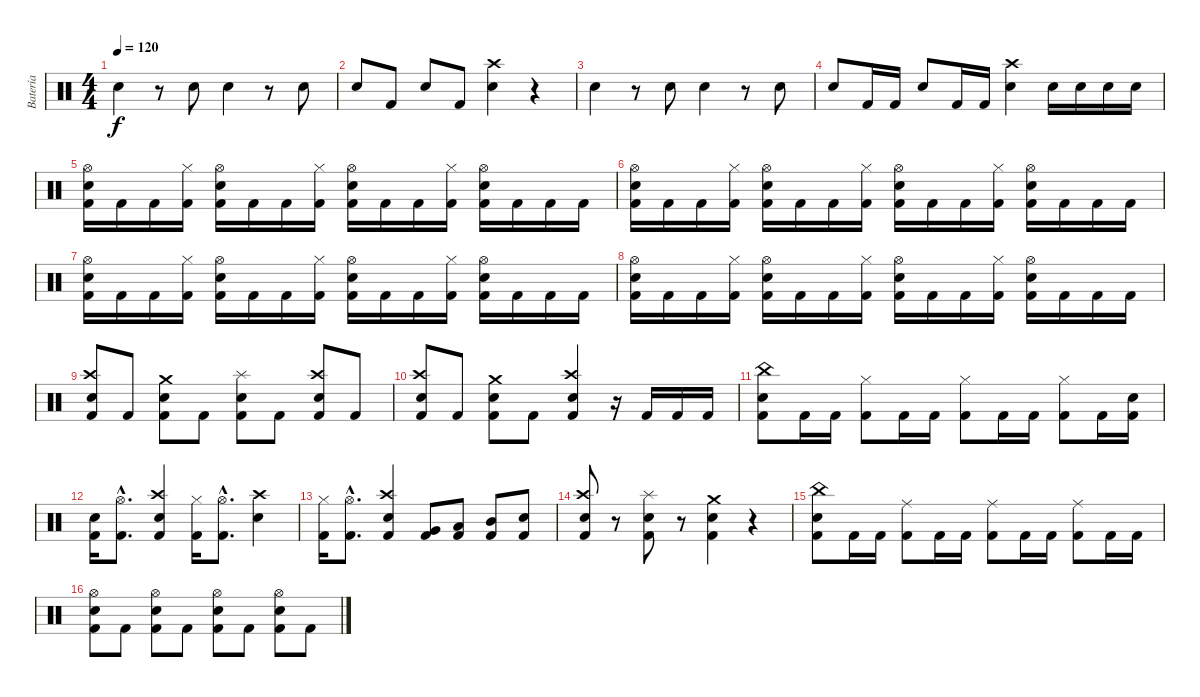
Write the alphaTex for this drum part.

\track ("Batería" "Batería") {instrument percussion}
\staff {score}
\articulation defaults
\ts (4 4)
\tempo 120
\clef neutral
\ks c "Electric Snare (hit)".4{dy f}
r.8 "Electric Snare (hit)".8 "Electric Snare (hit)".4 r.8 "Electric Snare (hit)".8 |
"Electric Snare (hit)".8 "Kick (hit) 2".8 "Electric Snare (hit)".8 "Kick (hit) 2".8 ("Crash high (hit)" "Snare (hit) 2").4 r.4 |
"Electric Snare (hit)".4 r.8 "Electric Snare (hit)".8 "Electric Snare (hit)".4 r.8 "Electric Snare (hit)".8 |
"Electric Snare (hit)".8 "Kick (hit) 2".16 "Kick (hit) 2".16 "Electric Snare (hit)".8 "Kick (hit) 2".16 "Kick (hit) 2".16 ("Crash high (hit)" "Snare (hit) 2").4 "Electric Snare (hit)".16 "Electric Snare (hit)".16 "Electric Snare (hit)".16 "Electric Snare (hit)".16 |
("Hi-Hat (open)" "Electric Snare (hit)" "Kick (hit) 2").16 "Kick (hit) 2".16 "Kick (hit) 2".16 ("Hi-Hat (closed)" "Kick (hit) 2").16 ("Hi-Hat (open)" "Electric Snare (hit)" "Kick (hit) 2").16 "Kick (hit) 2".16 "Kick (hit) 2".16 ("Hi-Hat (closed)" "Kick (hit) 2").16 ("Hi-Hat (open)" "Electric Snare (hit)" "Kick (hit) 2").16 "Kick (hit) 2".16 "Kick (hit) 2".16 ("Hi-Hat (closed)" "Kick (hit) 2").16 ("Hi-Hat (open)" "Electric Snare (hit)" "Kick (hit) 2").16 "Kick (hit) 2".16 "Kick (hit) 2".16 "Kick (hit) 2".16 |
("Hi-Hat (open)" "Electric Snare (hit)" "Kick (hit) 2").16 "Kick (hit) 2".16 "Kick (hit) 2".16 ("Hi-Hat (closed)" "Kick (hit) 2").16 ("Hi-Hat (open)" "Electric Snare (hit)" "Kick (hit) 2").16 "Kick (hit) 2".16 "Kick (hit) 2".16 ("Hi-Hat (closed)" "Kick (hit) 2").16 ("Hi-Hat (open)" "Electric Snare (hit)" "Kick (hit) 2").16 "Kick (hit) 2".16 "Kick (hit) 2".16 ("Hi-Hat (closed)" "Kick (hit) 2").16 ("Hi-Hat (open)" "Electric Snare (hit)" "Kick (hit) 2").16 "Kick (hit) 2".16 "Kick (hit) 2".16 "Kick (hit) 2".16 |
("Hi-Hat (open)" "Electric Snare (hit)" "Kick (hit) 2").16 "Kick (hit) 2".16 "Kick (hit) 2".16 ("Hi-Hat (closed)" "Kick (hit) 2").16 ("Hi-Hat (open)" "Electric Snare (hit)" "Kick (hit) 2").16 "Kick (hit) 2".16 "Kick (hit) 2".16 ("Hi-Hat (closed)" "Kick (hit) 2").16 ("Hi-Hat (open)" "Electric Snare (hit)" "Kick (hit) 2").16 "Kick (hit) 2".16 "Kick (hit) 2".16 ("Hi-Hat (closed)" "Kick (hit) 2").16 ("Hi-Hat (open)" "Electric Snare (hit)" "Kick (hit) 2").16 "Kick (hit) 2".16 "Kick (hit) 2".16 "Kick (hit) 2".16 |
("Hi-Hat (open)" "Electric Snare (hit)" "Kick (hit) 2").16 "Kick (hit) 2".16 "Kick (hit) 2".16 ("Hi-Hat (closed)" "Kick (hit) 2").16 ("Hi-Hat (open)" "Electric Snare (hit)" "Kick (hit) 2").16 "Kick (hit) 2".16 "Kick (hit) 2".16 ("Hi-Hat (closed)" "Kick (hit) 2").16 ("Hi-Hat (open)" "Electric Snare (hit)" "Kick (hit) 2").16 "Kick (hit) 2".16 "Kick (hit) 2".16 ("Hi-Hat (closed)" "Kick (hit) 2").16 ("Hi-Hat (open)" "Electric Snare (hit)" "Kick (hit) 2").16 "Kick (hit) 2".16 "Kick (hit) 2".16 "Kick (hit) 2".16 |
("Crash high (hit)" "Snare (hit) 2" "Kick (hit) 2").8 "Kick (hit) 2".8 ("Crash medium (hit)" "Snare (hit) 2" "Kick (hit) 2").8 "Kick (hit) 2".8 ("Splash (hit)" "Snare (hit) 2" "Kick (hit) 2").8 "Kick (hit) 2".8 ("Crash high (hit)" "Snare (hit) 2" "Kick (hit) 2").8 "Kick (hit) 2".8 |
("Crash high (hit)" "Snare (hit) 2" "Kick (hit) 2").8 "Kick (hit) 2".8 ("Crash medium (hit)" "Snare (hit) 2" "Kick (hit) 2").8 "Kick (hit) 2".8 ("Crash high (hit)" "Snare (hit) 2" "Kick (hit) 2").4 r.16 "Kick (hit) 2".16 "Kick (hit) 2".16 "Kick (hit) 2".16 |
("China (hit)" "Electric Snare (hit)" "Kick (hit) 2").8 "Kick (hit) 2".16 "Kick (hit) 2".16 ("Hi-Hat (closed)" "Kick (hit) 2").8 "Kick (hit) 2".16 "Kick (hit) 2".16 ("Hi-Hat (closed)" "Kick (hit) 2").8 "Kick (hit) 2".16 "Kick (hit) 2".16 ("Hi-Hat (closed)" "Kick (hit) 2").8 "Kick (hit) 2".16 ("Snare (hit) 2" "Kick (hit) 2").16 |
("Snare (hit) 2" "Kick (hit) 2").16 ("Hi-Hat (open)"{hac} "Kick (hit) 2"{hac}).8{d} ("Crash high (hit)" "Snare (hit) 2" "Kick (hit) 2").4 ("Hi-Hat (closed)" "Kick (hit) 2").16 ("Hi-Hat (open)"{hac} "Kick (hit) 2"{hac}).8{d} ("Crash high (hit)" "Snare (hit) 2").4 |
("Hi-Hat (closed)" "Kick (hit) 2").16 ("Hi-Hat (open)"{hac} "Kick (hit) 2"{hac}).8{d} ("Crash high (hit)" "Snare (hit) 2" "Kick (hit) 2").4 ("Very Low Tom (hit)" "Kick (hit) 2").8 ("Low Tom (hit)" "Kick (hit) 2").8 ("Mid Tom (hit)" "Kick (hit) 2").8 ("Electric Snare (hit)" "Kick (hit) 2").8 |
("Crash high (hit)" "Snare (hit) 2" "Kick (hit) 2").8 r.8 ("Splash (hit)" "Snare (hit) 2" "Kick (hit) 2").8 r.8 ("Crash medium (hit)" "Snare (hit) 2" "Kick (hit) 2").4 r.4 |
("China (hit)" "Electric Snare (hit)" "Kick (hit) 2").8 "Kick (hit) 2".16 "Kick (hit) 2".16 ("Ride (middle)" "Kick (hit) 2").8 "Kick (hit) 2".16 "Kick (hit) 2".16 ("Ride (middle)" "Kick (hit) 2").8 "Kick (hit) 2".16 "Kick (hit) 2".16 ("Ride (middle)" "Kick (hit) 2").8 "Kick (hit) 2".16 "Kick (hit) 2".16 |
("Hi-Hat (open)" "Electric Snare (hit)" "Kick (hit) 2").8 "Kick (hit) 2".8 ("Hi-Hat (open)" "Electric Snare (hit)" "Kick (hit) 2").8 "Kick (hit) 2".8 ("Hi-Hat (open)" "Electric Snare (hit)" "Kick (hit) 2").8 "Kick (hit) 2".8 ("Hi-Hat (open)" "Electric Snare (hit)" "Kick (hit) 2").8 "Kick (hit) 2".8
